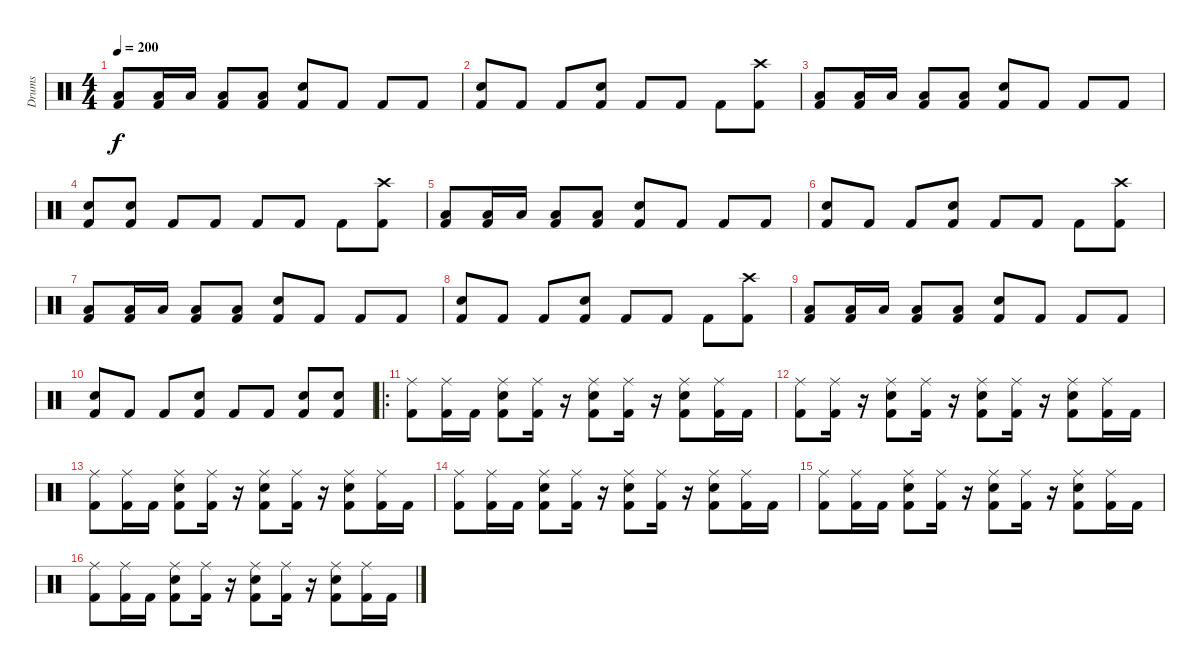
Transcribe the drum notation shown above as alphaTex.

\track ("Drums" "Drums") {instrument percussion}
\staff {score}
\articulation defaults
\ts (4 4)
\tempo 200
\clef neutral
\ks c
("Kick (hit) 2" "Low Tom (hit)").8{dy f} ("Kick (hit) 2" "Low Tom (hit)").16 "Low Tom (hit)".16 ("Kick (hit) 2" "Low Tom (hit)").8 ("Kick (hit) 2" "Low Tom (hit)").8 ("Kick (hit) 2" "Snare (hit) 2").8 "Kick (hit) 2".8 "Kick (hit) 2".8 "Kick (hit) 2".8 |
("Kick (hit) 2" "Snare (hit) 2").8 "Kick (hit) 2".8 "Kick (hit) 2".8 ("Kick (hit) 2" "Snare (hit) 2").8 "Kick (hit) 2".8 "Kick (hit) 2".8 "Kick (hit) 2".8 ("Kick (hit) 2" "Crash high (hit)").8 |
("Kick (hit) 2" "Low Tom (hit)").8 ("Kick (hit) 2" "Low Tom (hit)").16 "Low Tom (hit)".16 ("Kick (hit) 2" "Low Tom (hit)").8 ("Kick (hit) 2" "Low Tom (hit)").8 ("Kick (hit) 2" "Snare (hit) 2").8 "Kick (hit) 2".8 "Kick (hit) 2".8 "Kick (hit) 2".8 |
("Kick (hit) 2" "Snare (hit) 2").8 ("Kick (hit) 2" "Snare (hit) 2").8 "Kick (hit) 2".8 "Kick (hit) 2".8 "Kick (hit) 2".8 "Kick (hit) 2".8 "Kick (hit) 2".8 ("Kick (hit) 2" "Crash high (hit)").8 |
("Kick (hit) 2" "Low Tom (hit)").8 ("Kick (hit) 2" "Low Tom (hit)").16 "Low Tom (hit)".16 ("Kick (hit) 2" "Low Tom (hit)").8 ("Kick (hit) 2" "Low Tom (hit)").8 ("Kick (hit) 2" "Snare (hit) 2").8 "Kick (hit) 2".8 "Kick (hit) 2".8 "Kick (hit) 2".8 |
("Kick (hit) 2" "Snare (hit) 2").8 "Kick (hit) 2".8 "Kick (hit) 2".8 ("Kick (hit) 2" "Snare (hit) 2").8 "Kick (hit) 2".8 "Kick (hit) 2".8 "Kick (hit) 2".8 ("Kick (hit) 2" "Crash high (hit)").8 |
("Kick (hit) 2" "Low Tom (hit)").8 ("Kick (hit) 2" "Low Tom (hit)").16 "Low Tom (hit)".16 ("Kick (hit) 2" "Low Tom (hit)").8 ("Kick (hit) 2" "Low Tom (hit)").8 ("Kick (hit) 2" "Snare (hit) 2").8 "Kick (hit) 2".8 "Kick (hit) 2".8 "Kick (hit) 2".8 |
("Kick (hit) 2" "Snare (hit) 2").8 "Kick (hit) 2".8 "Kick (hit) 2".8 ("Kick (hit) 2" "Snare (hit) 2").8 "Kick (hit) 2".8 "Kick (hit) 2".8 "Kick (hit) 2".8 ("Kick (hit) 2" "Crash high (hit)").8 |
("Kick (hit) 2" "Low Tom (hit)").8 ("Kick (hit) 2" "Low Tom (hit)").16 "Low Tom (hit)".16 ("Kick (hit) 2" "Low Tom (hit)").8 ("Kick (hit) 2" "Low Tom (hit)").8 ("Kick (hit) 2" "Snare (hit) 2").8 "Kick (hit) 2".8 "Kick (hit) 2".8 "Kick (hit) 2".8 |
("Kick (hit) 2" "Snare (hit) 2").8 "Kick (hit) 2".8 "Kick (hit) 2".8 ("Kick (hit) 2" "Snare (hit) 2").8 "Kick (hit) 2".8 "Kick (hit) 2".8 ("Kick (hit) 2" "Snare (hit) 2").8 ("Kick (hit) 2" "Snare (hit) 2").8 |
\ro
("Kick (hit) 2" "Ride (middle)").8 ("Kick (hit) 2" "Ride (middle)").16 "Kick (hit) 2".16 ("Kick (hit) 2" "Snare (hit) 2" "Ride (middle)").8 ("Kick (hit) 2" "Ride (middle)").16 r.16 ("Kick (hit) 2" "Snare (hit) 2" "Ride (middle)").8 ("Kick (hit) 2" "Ride (middle)").16 r.16 ("Kick (hit) 2" "Snare (hit) 2" "Ride (middle)").8 ("Kick (hit) 2" "Ride (middle)").16 "Kick (hit) 2".16 |
("Kick (hit) 2" "Ride (middle)").8 ("Kick (hit) 2" "Ride (middle)").16 r.16 ("Kick (hit) 2" "Snare (hit) 2" "Ride (middle)").8 ("Kick (hit) 2" "Ride (middle)").16 r.16 ("Kick (hit) 2" "Snare (hit) 2" "Ride (middle)").8 ("Kick (hit) 2" "Ride (middle)").16 r.16 ("Kick (hit) 2" "Snare (hit) 2" "Ride (middle)").8 ("Kick (hit) 2" "Ride (middle)").16 "Kick (hit) 2".16 |
("Kick (hit) 2" "Ride (middle)").8 ("Kick (hit) 2" "Ride (middle)").16 "Kick (hit) 2".16 ("Kick (hit) 2" "Snare (hit) 2" "Ride (middle)").8 ("Kick (hit) 2" "Ride (middle)").16 r.16 ("Kick (hit) 2" "Snare (hit) 2" "Ride (middle)").8 ("Kick (hit) 2" "Ride (middle)").16 r.16 ("Kick (hit) 2" "Snare (hit) 2" "Ride (middle)").8 ("Kick (hit) 2" "Ride (middle)").16 "Kick (hit) 2".16 |
("Kick (hit) 2" "Ride (middle)").8 ("Kick (hit) 2" "Ride (middle)").16 "Kick (hit) 2".16 ("Kick (hit) 2" "Snare (hit) 2" "Ride (middle)").8 ("Kick (hit) 2" "Ride (middle)").16 r.16 ("Kick (hit) 2" "Snare (hit) 2" "Ride (middle)").8 ("Kick (hit) 2" "Ride (middle)").16 r.16 ("Kick (hit) 2" "Snare (hit) 2" "Ride (middle)").8 ("Kick (hit) 2" "Ride (middle)").16 "Kick (hit) 2".16 |
("Kick (hit) 2" "Ride (middle)").8 ("Kick (hit) 2" "Ride (middle)").16 "Kick (hit) 2".16 ("Kick (hit) 2" "Snare (hit) 2" "Ride (middle)").8 ("Kick (hit) 2" "Ride (middle)").16 r.16 ("Kick (hit) 2" "Snare (hit) 2" "Ride (middle)").8 ("Kick (hit) 2" "Ride (middle)").16 r.16 ("Kick (hit) 2" "Snare (hit) 2" "Ride (middle)").8 ("Kick (hit) 2" "Ride (middle)").16 "Kick (hit) 2".16 |
("Kick (hit) 2" "Ride (middle)").8 ("Kick (hit) 2" "Ride (middle)").16 "Kick (hit) 2".16 ("Kick (hit) 2" "Snare (hit) 2" "Ride (middle)").8 ("Kick (hit) 2" "Ride (middle)").16 r.16 ("Kick (hit) 2" "Snare (hit) 2" "Ride (middle)").8 ("Kick (hit) 2" "Ride (middle)").16 r.16 ("Kick (hit) 2" "Snare (hit) 2" "Ride (middle)").8 ("Kick (hit) 2" "Ride (middle)").16 "Kick (hit) 2".16
